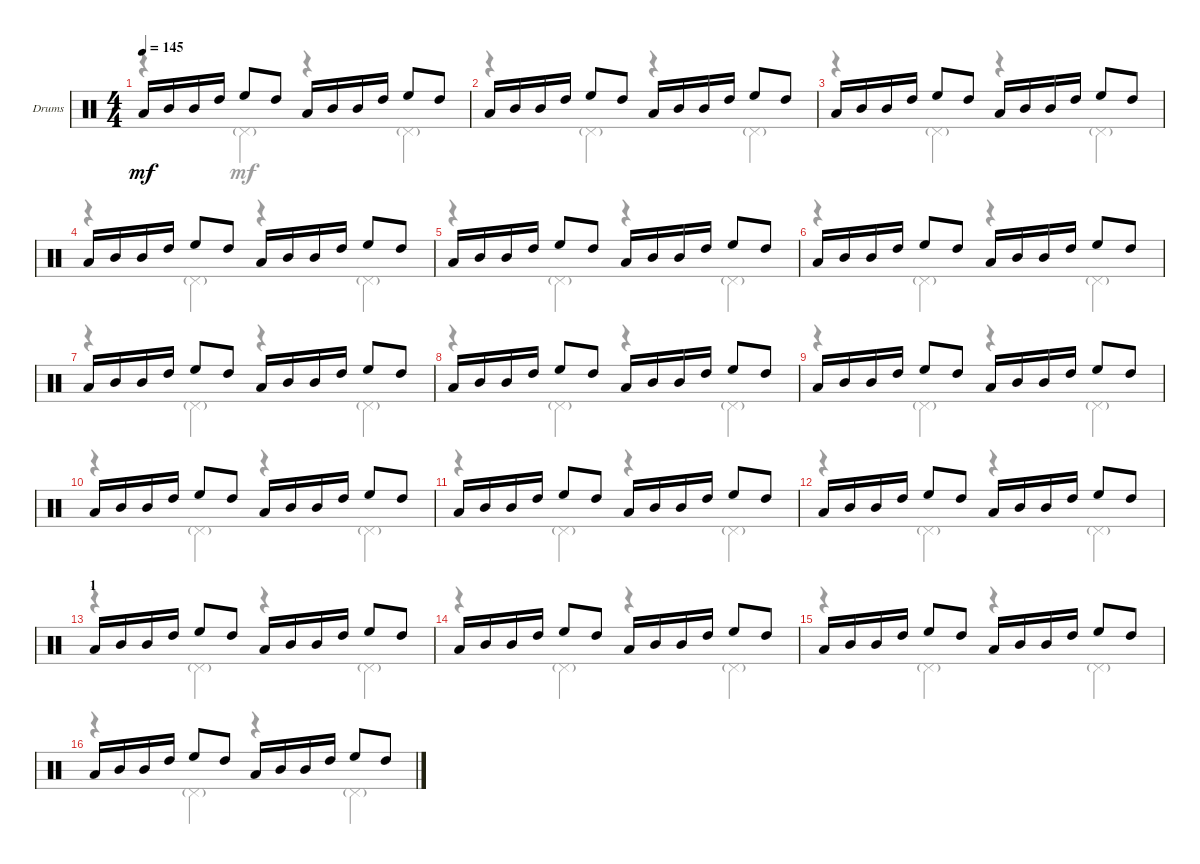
\defaultSystemsLayout 4
\bracketExtendMode groupsimilarinstruments
\firstSystemTrackNameOrientation horizontal
\otherSystemsTrackNameOrientation horizontal
\track ("Drumkit" "Drums") {instrument percussion}
\staff {score}
\articulation defaults
\voice
\ts (4 4)
\tempo 145
\clef neutral
\ks c "Low Tom (hit)".16{dy mf} "Mid Tom (hit)".16 "Mid Tom (hit)".16 "High Tom (hit)".16 "High Floor Tom (hit)".8 "High Tom (hit)".8 "Low Tom (hit)".16 "Mid Tom (hit)".16 "Mid Tom (hit)".16 "High Tom (hit)".16 "High Floor Tom (hit)".8 "High Tom (hit)".8
|
"Low Tom (hit)".16 "Mid Tom (hit)".16 "Mid Tom (hit)".16 "High Tom (hit)".16 "High Floor Tom (hit)".8 "High Tom (hit)".8 "Low Tom (hit)".16 "Mid Tom (hit)".16 "Mid Tom (hit)".16 "High Tom (hit)".16 "High Floor Tom (hit)".8 "High Tom (hit)".8 |
"Low Tom (hit)".16 "Mid Tom (hit)".16 "Mid Tom (hit)".16 "High Tom (hit)".16 "High Floor Tom (hit)".8 "High Tom (hit)".8 "Low Tom (hit)".16 "Mid Tom (hit)".16 "Mid Tom (hit)".16 "High Tom (hit)".16 "High Floor Tom (hit)".8 "High Tom (hit)".8 |
"Low Tom (hit)".16 "Mid Tom (hit)".16 "Mid Tom (hit)".16 "High Tom (hit)".16 "High Floor Tom (hit)".8 "High Tom (hit)".8 "Low Tom (hit)".16 "Mid Tom (hit)".16 "Mid Tom (hit)".16 "High Tom (hit)".16 "High Floor Tom (hit)".8 "High Tom (hit)".8 |
"Low Tom (hit)".16 "Mid Tom (hit)".16 "Mid Tom (hit)".16 "High Tom (hit)".16 "High Floor Tom (hit)".8 "High Tom (hit)".8 "Low Tom (hit)".16 "Mid Tom (hit)".16 "Mid Tom (hit)".16 "High Tom (hit)".16 "High Floor Tom (hit)".8 "High Tom (hit)".8 |
"Low Tom (hit)".16 "Mid Tom (hit)".16 "Mid Tom (hit)".16 "High Tom (hit)".16 "High Floor Tom (hit)".8 "High Tom (hit)".8 "Low Tom (hit)".16 "Mid Tom (hit)".16 "Mid Tom (hit)".16 "High Tom (hit)".16 "High Floor Tom (hit)".8 "High Tom (hit)".8 |
"Low Tom (hit)".16 "Mid Tom (hit)".16 "Mid Tom (hit)".16 "High Tom (hit)".16 "High Floor Tom (hit)".8 "High Tom (hit)".8 "Low Tom (hit)".16 "Mid Tom (hit)".16 "Mid Tom (hit)".16 "High Tom (hit)".16 "High Floor Tom (hit)".8 "High Tom (hit)".8 |
"Low Tom (hit)".16 "Mid Tom (hit)".16 "Mid Tom (hit)".16 "High Tom (hit)".16 "High Floor Tom (hit)".8 "High Tom (hit)".8 "Low Tom (hit)".16 "Mid Tom (hit)".16 "Mid Tom (hit)".16 "High Tom (hit)".16 "High Floor Tom (hit)".8 "High Tom (hit)".8 |
"Low Tom (hit)".16 "Mid Tom (hit)".16 "Mid Tom (hit)".16 "High Tom (hit)".16 "High Floor Tom (hit)".8 "High Tom (hit)".8 "Low Tom (hit)".16 "Mid Tom (hit)".16 "Mid Tom (hit)".16 "High Tom (hit)".16 "High Floor Tom (hit)".8 "High Tom (hit)".8 |
"Low Tom (hit)".16 "Mid Tom (hit)".16 "Mid Tom (hit)".16 "High Tom (hit)".16 "High Floor Tom (hit)".8 "High Tom (hit)".8 "Low Tom (hit)".16 "Mid Tom (hit)".16 "Mid Tom (hit)".16 "High Tom (hit)".16 "High Floor Tom (hit)".8 "High Tom (hit)".8 |
"Low Tom (hit)".16 "Mid Tom (hit)".16 "Mid Tom (hit)".16 "High Tom (hit)".16 "High Floor Tom (hit)".8 "High Tom (hit)".8 "Low Tom (hit)".16 "Mid Tom (hit)".16 "Mid Tom (hit)".16 "High Tom (hit)".16 "High Floor Tom (hit)".8 "High Tom (hit)".8 |
"Low Tom (hit)".16 "Mid Tom (hit)".16 "Mid Tom (hit)".16 "High Tom (hit)".16 "High Floor Tom (hit)".8 "High Tom (hit)".8 "Low Tom (hit)".16 "Mid Tom (hit)".16 "Mid Tom (hit)".16 "High Tom (hit)".16 "High Floor Tom (hit)".8 "High Tom (hit)".8 |
\section ("" "1")
"Low Tom (hit)".16 "Mid Tom (hit)".16 "Mid Tom (hit)".16 "High Tom (hit)".16 "High Floor Tom (hit)".8 "High Tom (hit)".8 "Low Tom (hit)".16 "Mid Tom (hit)".16 "Mid Tom (hit)".16 "High Tom (hit)".16 "High Floor Tom (hit)".8 "High Tom (hit)".8 |
"Low Tom (hit)".16 "Mid Tom (hit)".16 "Mid Tom (hit)".16 "High Tom (hit)".16 "High Floor Tom (hit)".8 "High Tom (hit)".8 "Low Tom (hit)".16 "Mid Tom (hit)".16 "Mid Tom (hit)".16 "High Tom (hit)".16 "High Floor Tom (hit)".8 "High Tom (hit)".8 |
"Low Tom (hit)".16 "Mid Tom (hit)".16 "Mid Tom (hit)".16 "High Tom (hit)".16 "High Floor Tom (hit)".8 "High Tom (hit)".8 "Low Tom (hit)".16 "Mid Tom (hit)".16 "Mid Tom (hit)".16 "High Tom (hit)".16 "High Floor Tom (hit)".8 "High Tom (hit)".8 |
"Low Tom (hit)".16 "Mid Tom (hit)".16 "Mid Tom (hit)".16 "High Tom (hit)".16 "High Floor Tom (hit)".8 "High Tom (hit)".8 "Low Tom (hit)".16 "Mid Tom (hit)".16 "Mid Tom (hit)".16 "High Tom (hit)".16 "High Floor Tom (hit)".8 "High Tom (hit)".8
\voice
\clef neutral
\ottava regular
\simile none
\ks c
r.4{dy mf} "Pedal Hi-Hat (hit)"{g}.4 r.4 "Pedal Hi-Hat (hit)"{g}.4 |
r.4 "Pedal Hi-Hat (hit)"{g}.4 r.4 "Pedal Hi-Hat (hit)"{g}.4 |
r.4 "Pedal Hi-Hat (hit)"{g}.4 r.4 "Pedal Hi-Hat (hit)"{g}.4 |
r.4 "Pedal Hi-Hat (hit)"{g}.4 r.4 "Pedal Hi-Hat (hit)"{g}.4 |
r.4 "Pedal Hi-Hat (hit)"{g}.4 r.4 "Pedal Hi-Hat (hit)"{g}.4 |
r.4 "Pedal Hi-Hat (hit)"{g}.4 r.4 "Pedal Hi-Hat (hit)"{g}.4 |
r.4 "Pedal Hi-Hat (hit)"{g}.4 r.4 "Pedal Hi-Hat (hit)"{g}.4 |
r.4 "Pedal Hi-Hat (hit)"{g}.4 r.4 "Pedal Hi-Hat (hit)"{g}.4 |
r.4 "Pedal Hi-Hat (hit)"{g}.4 r.4 "Pedal Hi-Hat (hit)"{g}.4 |
r.4 "Pedal Hi-Hat (hit)"{g}.4 r.4 "Pedal Hi-Hat (hit)"{g}.4 |
r.4 "Pedal Hi-Hat (hit)"{g}.4 r.4 "Pedal Hi-Hat (hit)"{g}.4 |
r.4 "Pedal Hi-Hat (hit)"{g}.4 r.4 "Pedal Hi-Hat (hit)"{g}.4 |
r.4 "Pedal Hi-Hat (hit)"{g}.4 r.4 "Pedal Hi-Hat (hit)"{g}.4 |
r.4 "Pedal Hi-Hat (hit)"{g}.4 r.4 "Pedal Hi-Hat (hit)"{g}.4 |
r.4 "Pedal Hi-Hat (hit)"{g}.4 r.4 "Pedal Hi-Hat (hit)"{g}.4 |
r.4 "Pedal Hi-Hat (hit)"{g}.4 r.4 "Pedal Hi-Hat (hit)"{g}.4
